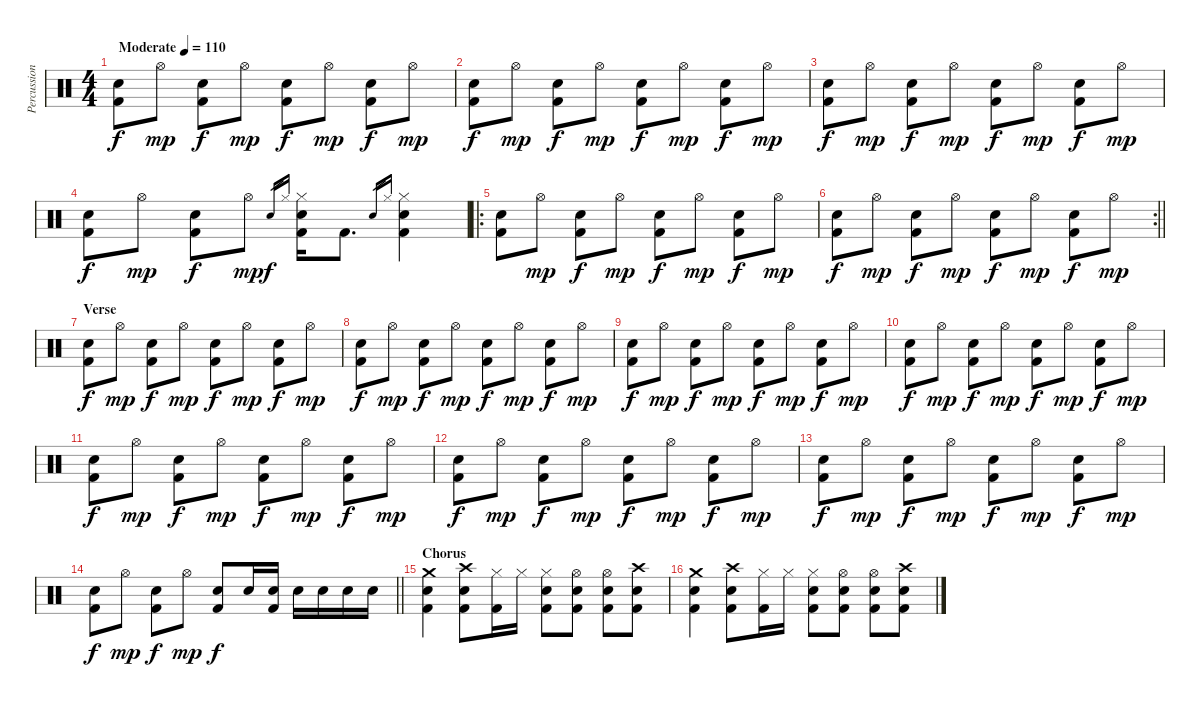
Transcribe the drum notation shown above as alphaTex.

\track ("Percussion" "Percussion") {instrument percussion}
\staff {score}
\articulation defaults
\ts (4 4)
\tempo (110 "Moderate")
\clef neutral
\ks c
("Snare (hit) 2" "Kick (hit) 2").8{dy f} "Hi-Hat (open)".8{dy mp} ("Snare (hit) 2" "Kick (hit) 2").8{dy f} "Hi-Hat (open)".8{dy mp} ("Snare (hit) 2" "Kick (hit) 2").8{dy f} "Hi-Hat (open)".8{dy mp} ("Snare (hit) 2" "Kick (hit) 2").8{dy f} "Hi-Hat (open)".8{dy mp} |
("Snare (hit) 2" "Kick (hit) 2").8{dy f} "Hi-Hat (open)".8{dy mp} ("Snare (hit) 2" "Kick (hit) 2").8{dy f} "Hi-Hat (open)".8{dy mp} ("Snare (hit) 2" "Kick (hit) 2").8{dy f} "Hi-Hat (open)".8{dy mp} ("Snare (hit) 2" "Kick (hit) 2").8{dy f} "Hi-Hat (open)".8{dy mp} |
("Snare (hit) 2" "Kick (hit) 2").8{dy f} "Hi-Hat (open)".8{dy mp} ("Snare (hit) 2" "Kick (hit) 2").8{dy f} "Hi-Hat (open)".8{dy mp} ("Snare (hit) 2" "Kick (hit) 2").8{dy f} "Hi-Hat (open)".8{dy mp} ("Snare (hit) 2" "Kick (hit) 2").8{dy f} "Hi-Hat (open)".8{dy mp} |
("Snare (hit) 2" "Kick (hit) 2").8{dy f} "Hi-Hat (open)".8{dy mp} ("Snare (hit) 2" "Kick (hit) 2").8{dy f} "Hi-Hat (open)".8{dy mp} "Snare (hit) 2".16{gr dy f} "Hi-Hat (closed)".16{gr} ("Snare (hit) 2" "Hi-Hat (closed)" "Kick (hit) 2").16 "Kick (hit) 2".8{d} "Snare (hit) 2".16{gr} "Hi-Hat (closed)".16{gr} ("Snare (hit) 2" "Hi-Hat (closed)" "Kick (hit) 2").4 |
\ro
("Snare (hit) 2" "Kick (hit) 2").8 "Hi-Hat (open)".8{dy mp} ("Snare (hit) 2" "Kick (hit) 2").8{dy f} "Hi-Hat (open)".8{dy mp} ("Snare (hit) 2" "Kick (hit) 2").8{dy f} "Hi-Hat (open)".8{dy mp} ("Snare (hit) 2" "Kick (hit) 2").8{dy f} "Hi-Hat (open)".8{dy mp} |
\rc 2
\barLineRight lightlight
("Snare (hit) 2" "Kick (hit) 2").8{dy f} "Hi-Hat (open)".8{dy mp} ("Snare (hit) 2" "Kick (hit) 2").8{dy f} "Hi-Hat (open)".8{dy mp} ("Snare (hit) 2" "Kick (hit) 2").8{dy f} "Hi-Hat (open)".8{dy mp} ("Snare (hit) 2" "Kick (hit) 2").8{dy f} "Hi-Hat (open)".8{dy mp} |
\section ("" "Verse")
("Snare (hit) 2" "Kick (hit) 2").8{dy f} "Hi-Hat (open)".8{dy mp} ("Snare (hit) 2" "Kick (hit) 2").8{dy f} "Hi-Hat (open)".8{dy mp} ("Snare (hit) 2" "Kick (hit) 2").8{dy f} "Hi-Hat (open)".8{dy mp} ("Snare (hit) 2" "Kick (hit) 2").8{dy f} "Hi-Hat (open)".8{dy mp} |
("Snare (hit) 2" "Kick (hit) 2").8{dy f} "Hi-Hat (open)".8{dy mp} ("Snare (hit) 2" "Kick (hit) 2").8{dy f} "Hi-Hat (open)".8{dy mp} ("Snare (hit) 2" "Kick (hit) 2").8{dy f} "Hi-Hat (open)".8{dy mp} ("Snare (hit) 2" "Kick (hit) 2").8{dy f} "Hi-Hat (open)".8{dy mp} |
("Snare (hit) 2" "Kick (hit) 2").8{dy f} "Hi-Hat (open)".8{dy mp} ("Snare (hit) 2" "Kick (hit) 2").8{dy f} "Hi-Hat (open)".8{dy mp} ("Snare (hit) 2" "Kick (hit) 2").8{dy f} "Hi-Hat (open)".8{dy mp} ("Snare (hit) 2" "Kick (hit) 2").8{dy f} "Hi-Hat (open)".8{dy mp} |
("Snare (hit) 2" "Kick (hit) 2").8{dy f} "Hi-Hat (open)".8{dy mp} ("Snare (hit) 2" "Kick (hit) 2").8{dy f} "Hi-Hat (open)".8{dy mp} ("Snare (hit) 2" "Kick (hit) 2").8{dy f} "Hi-Hat (open)".8{dy mp} ("Snare (hit) 2" "Kick (hit) 2").8{dy f} "Hi-Hat (open)".8{dy mp} |
("Snare (hit) 2" "Kick (hit) 2").8{dy f} "Hi-Hat (open)".8{dy mp} ("Snare (hit) 2" "Kick (hit) 2").8{dy f} "Hi-Hat (open)".8{dy mp} ("Snare (hit) 2" "Kick (hit) 2").8{dy f} "Hi-Hat (open)".8{dy mp} ("Snare (hit) 2" "Kick (hit) 2").8{dy f} "Hi-Hat (open)".8{dy mp} |
("Snare (hit) 2" "Kick (hit) 2").8{dy f} "Hi-Hat (open)".8{dy mp} ("Snare (hit) 2" "Kick (hit) 2").8{dy f} "Hi-Hat (open)".8{dy mp} ("Snare (hit) 2" "Kick (hit) 2").8{dy f} "Hi-Hat (open)".8{dy mp} ("Snare (hit) 2" "Kick (hit) 2").8{dy f} "Hi-Hat (open)".8{dy mp} |
("Snare (hit) 2" "Kick (hit) 2").8{dy f} "Hi-Hat (open)".8{dy mp} ("Snare (hit) 2" "Kick (hit) 2").8{dy f} "Hi-Hat (open)".8{dy mp} ("Snare (hit) 2" "Kick (hit) 2").8{dy f} "Hi-Hat (open)".8{dy mp} ("Snare (hit) 2" "Kick (hit) 2").8{dy f} "Hi-Hat (open)".8{dy mp} |
\barLineRight lightlight
("Snare (hit) 2" "Kick (hit) 2").8{dy f} "Hi-Hat (open)".8{dy mp} ("Snare (hit) 2" "Kick (hit) 2").8{dy f} "Hi-Hat (open)".8{dy mp} ("Snare (hit) 2" "Kick (hit) 2").8{dy f} "Snare (hit) 2".16 ("Snare (hit) 2" "Kick (hit) 2").16 "Snare (hit) 2".16 "Snare (hit) 2".16 "Snare (hit) 2".16 "Snare (hit) 2".16 |
\section ("" "Chorus")
("Crash medium (hit)" "Snare (hit) 2" "Kick (hit) 2").4 ("Crash high (hit)" "Snare (hit) 2" "Kick (hit) 2").8 ("Hi-Hat (closed)" "Kick (hit) 2").16 "Hi-Hat (closed)".16 ("Snare (hit) 2" "Hi-Hat (closed)" "Kick (hit) 2").8 ("Hi-Hat (open)" "Snare (hit) 2" "Kick (hit) 2").8 ("Hi-Hat (open)" "Snare (hit) 2" "Kick (hit) 2").8 ("Crash high (hit)" "Snare (hit) 2" "Kick (hit) 2").8 |
("Crash medium (hit)" "Snare (hit) 2" "Kick (hit) 2").4 ("Crash high (hit)" "Snare (hit) 2" "Kick (hit) 2").8 ("Hi-Hat (closed)" "Kick (hit) 2").16 "Hi-Hat (closed)".16 ("Snare (hit) 2" "Hi-Hat (closed)" "Kick (hit) 2").8 ("Hi-Hat (open)" "Snare (hit) 2" "Kick (hit) 2").8 ("Hi-Hat (open)" "Snare (hit) 2" "Kick (hit) 2").8 ("Crash high (hit)" "Snare (hit) 2" "Kick (hit) 2").8
